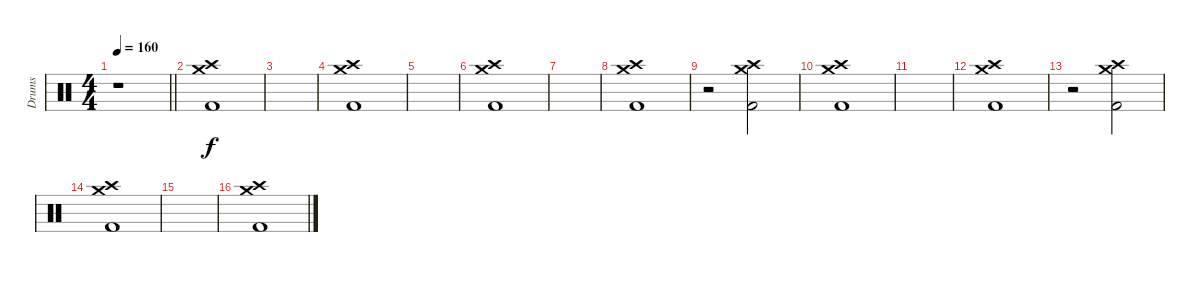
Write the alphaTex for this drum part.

\track ("Drums" "Drums") {instrument percussion}
\staff {score}
\articulation defaults
\ts (4 4)
\tempo 160
\clef neutral
\barLineRight lightlight
\ks c
r.1{dy f} |
\section ("" "")
("Crash medium (hit)" "Crash high (hit)" "Kick (hit) 2").1 |
|
("Crash medium (hit)" "Crash high (hit)" "Kick (hit) 2").1 |
|
("Crash medium (hit)" "Crash high (hit)" "Kick (hit) 2").1 |
|
("Crash medium (hit)" "Crash high (hit)" "Kick (hit) 2").1 |
r.2 ("Crash medium (hit)" "Crash high (hit)" "Kick (hit) 2").2 |
("Crash medium (hit)" "Crash high (hit)" "Kick (hit) 2").1 |
|
("Crash medium (hit)" "Crash high (hit)" "Kick (hit) 2").1 |
r.2 ("Crash medium (hit)" "Crash high (hit)" "Kick (hit) 2").2 |
("Crash medium (hit)" "Crash high (hit)" "Kick (hit) 2").1 |
|
("Crash medium (hit)" "Crash high (hit)" "Kick (hit) 2").1
